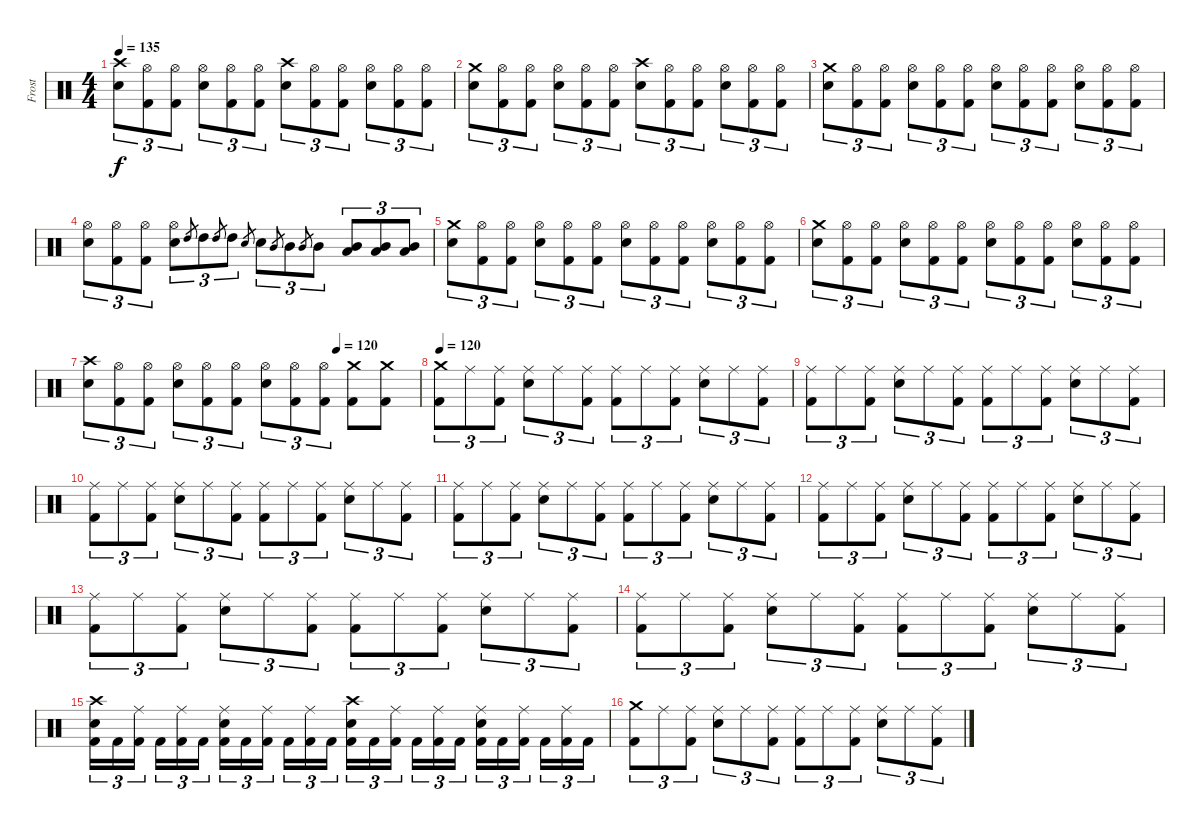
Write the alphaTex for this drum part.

\track ("Frost" "Frost") {instrument percussion}
\staff {score}
\articulation defaults
\ts (4 4)
\tempo 135
\clef neutral
\ks c
("Crash high (hit)" "Electric Snare (hit)").8{tu (3 2) dy f} ("Hi-Hat (open)" "Kick (hit) 2").8{tu (3 2)} ("Hi-Hat (open)" "Kick (hit) 2").8{tu (3 2)} ("Hi-Hat (open)" "Electric Snare (hit)").8{tu (3 2)} ("Hi-Hat (open)" "Kick (hit) 2").8{tu (3 2)} ("Hi-Hat (open)" "Kick (hit) 2").8{tu (3 2)} ("Crash high (hit)" "Electric Snare (hit)").8{tu (3 2)} ("Hi-Hat (open)" "Kick (hit) 2").8{tu (3 2)} ("Hi-Hat (open)" "Kick (hit) 2").8{tu (3 2)} ("Hi-Hat (open)" "Electric Snare (hit)").8{tu (3 2)} ("Hi-Hat (open)" "Kick (hit) 2").8{tu (3 2)} ("Hi-Hat (open)" "Kick (hit) 2").8{tu (3 2)} |
("Crash medium (hit)" "Electric Snare (hit)").8{tu (3 2)} ("Hi-Hat (open)" "Kick (hit) 2").8{tu (3 2)} ("Hi-Hat (open)" "Kick (hit) 2").8{tu (3 2)} ("Hi-Hat (open)" "Electric Snare (hit)").8{tu (3 2)} ("Hi-Hat (open)" "Kick (hit) 2").8{tu (3 2)} ("Hi-Hat (open)" "Kick (hit) 2").8{tu (3 2)} ("Crash high (hit)" "Electric Snare (hit)").8{tu (3 2)} ("Hi-Hat (open)" "Kick (hit) 2").8{tu (3 2)} ("Hi-Hat (open)" "Kick (hit) 2").8{tu (3 2)} ("Hi-Hat (open)" "Electric Snare (hit)").8{tu (3 2)} ("Hi-Hat (open)" "Kick (hit) 2").8{tu (3 2)} ("Hi-Hat (open)" "Kick (hit) 2").8{tu (3 2)} |
("Crash medium (hit)" "Electric Snare (hit)").8{tu (3 2)} ("Hi-Hat (open)" "Kick (hit) 2").8{tu (3 2)} ("Hi-Hat (open)" "Kick (hit) 2").8{tu (3 2)} ("Hi-Hat (open)" "Electric Snare (hit)").8{tu (3 2)} ("Hi-Hat (open)" "Kick (hit) 2").8{tu (3 2)} ("Hi-Hat (open)" "Kick (hit) 2").8{tu (3 2)} ("Hi-Hat (open)" "Electric Snare (hit)").8{tu (3 2)} ("Hi-Hat (open)" "Kick (hit) 2").8{tu (3 2)} ("Hi-Hat (open)" "Kick (hit) 2").8{tu (3 2)} ("Hi-Hat (open)" "Electric Snare (hit)").8{tu (3 2)} ("Hi-Hat (open)" "Kick (hit) 2").8{tu (3 2)} ("Hi-Hat (open)" "Kick (hit) 2").8{tu (3 2)} |
("Hi-Hat (open)" "Electric Snare (hit)").8{tu (3 2)} ("Hi-Hat (open)" "Kick (hit) 2").8{tu (3 2)} ("Hi-Hat (open)" "Kick (hit) 2").8{tu (3 2)} ("Hi-Hat (open)" "Electric Snare (hit)").8{tu (3 2)} "High Tom (hit)".8{gr} "High Tom (hit)".8{tu (3 2)} "High Tom (hit)".8{gr} "High Tom (hit)".8{tu (3 2)} "Electric Snare (hit)".8{gr} "Electric Snare (hit)".8{tu (3 2)} "Mid Tom (hit)".8{gr} "Mid Tom (hit)".8{tu (3 2)} "Mid Tom (hit)".8{gr} "Mid Tom (hit)".8{tu (3 2)} ("Mid Tom (hit)" "Low Tom (hit)").8{tu (3 2)} ("Mid Tom (hit)" "Low Tom (hit)").8{tu (3 2)} ("Mid Tom (hit)" "Low Tom (hit)").8{tu (3 2)} |
("Crash medium (hit)" "Electric Snare (hit)").8{tu (3 2)} ("Hi-Hat (open)" "Kick (hit) 2").8{tu (3 2)} ("Hi-Hat (open)" "Kick (hit) 2").8{tu (3 2)} ("Hi-Hat (open)" "Electric Snare (hit)").8{tu (3 2)} ("Hi-Hat (open)" "Kick (hit) 2").8{tu (3 2)} ("Hi-Hat (open)" "Kick (hit) 2").8{tu (3 2)} ("Hi-Hat (open)" "Electric Snare (hit)").8{tu (3 2)} ("Hi-Hat (open)" "Kick (hit) 2").8{tu (3 2)} ("Hi-Hat (open)" "Kick (hit) 2").8{tu (3 2)} ("Hi-Hat (open)" "Electric Snare (hit)").8{tu (3 2)} ("Hi-Hat (open)" "Kick (hit) 2").8{tu (3 2)} ("Hi-Hat (open)" "Kick (hit) 2").8{tu (3 2)} |
("Crash medium (hit)" "Electric Snare (hit)").8{tu (3 2)} ("Hi-Hat (open)" "Kick (hit) 2").8{tu (3 2)} ("Hi-Hat (open)" "Kick (hit) 2").8{tu (3 2)} ("Hi-Hat (open)" "Electric Snare (hit)").8{tu (3 2)} ("Hi-Hat (open)" "Kick (hit) 2").8{tu (3 2)} ("Hi-Hat (open)" "Kick (hit) 2").8{tu (3 2)} ("Hi-Hat (open)" "Electric Snare (hit)").8{tu (3 2)} ("Hi-Hat (open)" "Kick (hit) 2").8{tu (3 2)} ("Hi-Hat (open)" "Kick (hit) 2").8{tu (3 2)} ("Hi-Hat (open)" "Electric Snare (hit)").8{tu (3 2)} ("Hi-Hat (open)" "Kick (hit) 2").8{tu (3 2)} ("Hi-Hat (open)" "Kick (hit) 2").8{tu (3 2)} |
\tempo (120 0.75)
("Crash high (hit)" "Electric Snare (hit)").8{tu (3 2)} ("Hi-Hat (open)" "Kick (hit) 2").8{tu (3 2)} ("Hi-Hat (open)" "Kick (hit) 2").8{tu (3 2)} ("Hi-Hat (open)" "Electric Snare (hit)").8{tu (3 2)} ("Hi-Hat (open)" "Kick (hit) 2").8{tu (3 2)} ("Hi-Hat (open)" "Kick (hit) 2").8{tu (3 2)} ("Hi-Hat (open)" "Electric Snare (hit)").8{tu (3 2)} ("Hi-Hat (open)" "Kick (hit) 2").8{tu (3 2)} ("Hi-Hat (open)" "Kick (hit) 2").8{tu (3 2)} ("Crash medium (hit)" "Kick (hit) 2").8 ("Crash medium (hit)" "Kick (hit) 2").8 |
\tempo 120
("Crash medium (hit)" "Kick (hit) 2").8{tu (3 2)} "Ride (middle)".8{tu (3 2)} ("Ride (middle)" "Kick (hit) 2").8{tu (3 2)} ("Ride (middle)" "Electric Snare (hit)").8{tu (3 2)} "Ride (middle)".8{tu (3 2)} ("Ride (middle)" "Kick (hit) 2").8{tu (3 2)} ("Ride (middle)" "Kick (hit) 2").8{tu (3 2)} "Ride (middle)".8{tu (3 2)} ("Ride (middle)" "Kick (hit) 2").8{tu (3 2)} ("Ride (middle)" "Electric Snare (hit)").8{tu (3 2)} "Ride (middle)".8{tu (3 2)} ("Ride (middle)" "Kick (hit) 2").8{tu (3 2)} |
("Ride (middle)" "Kick (hit) 2").8{tu (3 2)} "Ride (middle)".8{tu (3 2)} ("Ride (middle)" "Kick (hit) 2").8{tu (3 2)} ("Ride (middle)" "Electric Snare (hit)").8{tu (3 2)} "Ride (middle)".8{tu (3 2)} ("Ride (middle)" "Kick (hit) 2").8{tu (3 2)} ("Ride (middle)" "Kick (hit) 2").8{tu (3 2)} "Ride (middle)".8{tu (3 2)} ("Ride (middle)" "Kick (hit) 2").8{tu (3 2)} ("Ride (middle)" "Electric Snare (hit)").8{tu (3 2)} "Ride (middle)".8{tu (3 2)} ("Ride (middle)" "Kick (hit) 2").8{tu (3 2)} |
("Ride (middle)" "Kick (hit) 2").8{tu (3 2)} "Ride (middle)".8{tu (3 2)} ("Ride (middle)" "Kick (hit) 2").8{tu (3 2)} ("Ride (middle)" "Electric Snare (hit)").8{tu (3 2)} "Ride (middle)".8{tu (3 2)} ("Ride (middle)" "Kick (hit) 2").8{tu (3 2)} ("Ride (middle)" "Kick (hit) 2").8{tu (3 2)} "Ride (middle)".8{tu (3 2)} ("Ride (middle)" "Kick (hit) 2").8{tu (3 2)} ("Ride (middle)" "Electric Snare (hit)").8{tu (3 2)} "Ride (middle)".8{tu (3 2)} ("Ride (middle)" "Kick (hit) 2").8{tu (3 2)} |
("Ride (middle)" "Kick (hit) 2").8{tu (3 2)} "Ride (middle)".8{tu (3 2)} ("Ride (middle)" "Kick (hit) 2").8{tu (3 2)} ("Ride (middle)" "Electric Snare (hit)").8{tu (3 2)} "Ride (middle)".8{tu (3 2)} ("Ride (middle)" "Kick (hit) 2").8{tu (3 2)} ("Ride (middle)" "Kick (hit) 2").8{tu (3 2)} "Ride (middle)".8{tu (3 2)} ("Ride (middle)" "Kick (hit) 2").8{tu (3 2)} ("Ride (middle)" "Electric Snare (hit)").8{tu (3 2)} "Ride (middle)".8{tu (3 2)} ("Ride (middle)" "Kick (hit) 2").8{tu (3 2)} |
("Ride (middle)" "Kick (hit) 2").8{tu (3 2)} "Ride (middle)".8{tu (3 2)} ("Ride (middle)" "Kick (hit) 2").8{tu (3 2)} ("Ride (middle)" "Electric Snare (hit)").8{tu (3 2)} "Ride (middle)".8{tu (3 2)} ("Ride (middle)" "Kick (hit) 2").8{tu (3 2)} ("Ride (middle)" "Kick (hit) 2").8{tu (3 2)} "Ride (middle)".8{tu (3 2)} ("Ride (middle)" "Kick (hit) 2").8{tu (3 2)} ("Ride (middle)" "Electric Snare (hit)").8{tu (3 2)} "Ride (middle)".8{tu (3 2)} ("Ride (middle)" "Kick (hit) 2").8{tu (3 2)} |
("Ride (middle)" "Kick (hit) 2").8{tu (3 2)} "Ride (middle)".8{tu (3 2)} ("Ride (middle)" "Kick (hit) 2").8{tu (3 2)} ("Ride (middle)" "Electric Snare (hit)").8{tu (3 2)} "Ride (middle)".8{tu (3 2)} ("Ride (middle)" "Kick (hit) 2").8{tu (3 2)} ("Ride (middle)" "Kick (hit) 2").8{tu (3 2)} "Ride (middle)".8{tu (3 2)} ("Ride (middle)" "Kick (hit) 2").8{tu (3 2)} ("Ride (middle)" "Electric Snare (hit)").8{tu (3 2)} "Ride (middle)".8{tu (3 2)} ("Ride (middle)" "Kick (hit) 2").8{tu (3 2)} |
("Ride (middle)" "Kick (hit) 2").8{tu (3 2)} "Ride (middle)".8{tu (3 2)} ("Ride (middle)" "Kick (hit) 2").8{tu (3 2)} ("Ride (middle)" "Electric Snare (hit)").8{tu (3 2)} "Ride (middle)".8{tu (3 2)} ("Ride (middle)" "Kick (hit) 2").8{tu (3 2)} ("Ride (middle)" "Kick (hit) 2").8{tu (3 2)} "Ride (middle)".8{tu (3 2)} ("Ride (middle)" "Kick (hit) 2").8{tu (3 2)} ("Ride (middle)" "Electric Snare (hit)").8{tu (3 2)} "Ride (middle)".8{tu (3 2)} ("Ride (middle)" "Kick (hit) 2").8{tu (3 2)} |
("Crash high (hit)" "Electric Snare (hit)" "Kick (hit) 2").16{tu (3 2)} "Kick (hit) 2".16{tu (3 2)} ("Ride (middle)" "Kick (hit) 2").16{tu (3 2)} "Kick (hit) 2".16{tu (3 2)} ("Ride (middle)" "Kick (hit) 2").16{tu (3 2)} "Kick (hit) 2".16{tu (3 2)} ("Ride (middle)" "Electric Snare (hit)" "Kick (hit) 2").16{tu (3 2)} "Kick (hit) 2".16{tu (3 2)} ("Ride (middle)" "Kick (hit) 2").16{tu (3 2)} "Kick (hit) 2".16{tu (3 2)} ("Ride (middle)" "Kick (hit) 2").16{tu (3 2)} "Kick (hit) 2".16{tu (3 2)} ("Crash high (hit)" "Electric Snare (hit)" "Kick (hit) 2").16{tu (3 2)} "Kick (hit) 2".16{tu (3 2)} ("Ride (middle)" "Kick (hit) 2").16{tu (3 2)} "Kick (hit) 2".16{tu (3 2)} ("Ride (middle)" "Kick (hit) 2").16{tu (3 2)} "Kick (hit) 2".16{tu (3 2)} ("Ride (middle)" "Electric Snare (hit)" "Kick (hit) 2").16{tu (3 2)} "Kick (hit) 2".16{tu (3 2)} ("Ride (middle)" "Kick (hit) 2").16{tu (3 2)} "Kick (hit) 2".16{tu (3 2)} ("Ride (middle)" "Kick (hit) 2").16{tu (3 2)} "Kick (hit) 2".16{tu (3 2)} |
("Crash medium (hit)" "Kick (hit) 2").8{tu (3 2)} "Ride (middle)".8{tu (3 2)} ("Ride (middle)" "Kick (hit) 2").8{tu (3 2)} ("Ride (middle)" "Electric Snare (hit)").8{tu (3 2)} "Ride (middle)".8{tu (3 2)} ("Ride (middle)" "Kick (hit) 2").8{tu (3 2)} ("Ride (middle)" "Kick (hit) 2").8{tu (3 2)} "Ride (middle)".8{tu (3 2)} ("Ride (middle)" "Kick (hit) 2").8{tu (3 2)} ("Ride (middle)" "Electric Snare (hit)").8{tu (3 2)} "Ride (middle)".8{tu (3 2)} ("Ride (middle)" "Kick (hit) 2").8{tu (3 2)}
